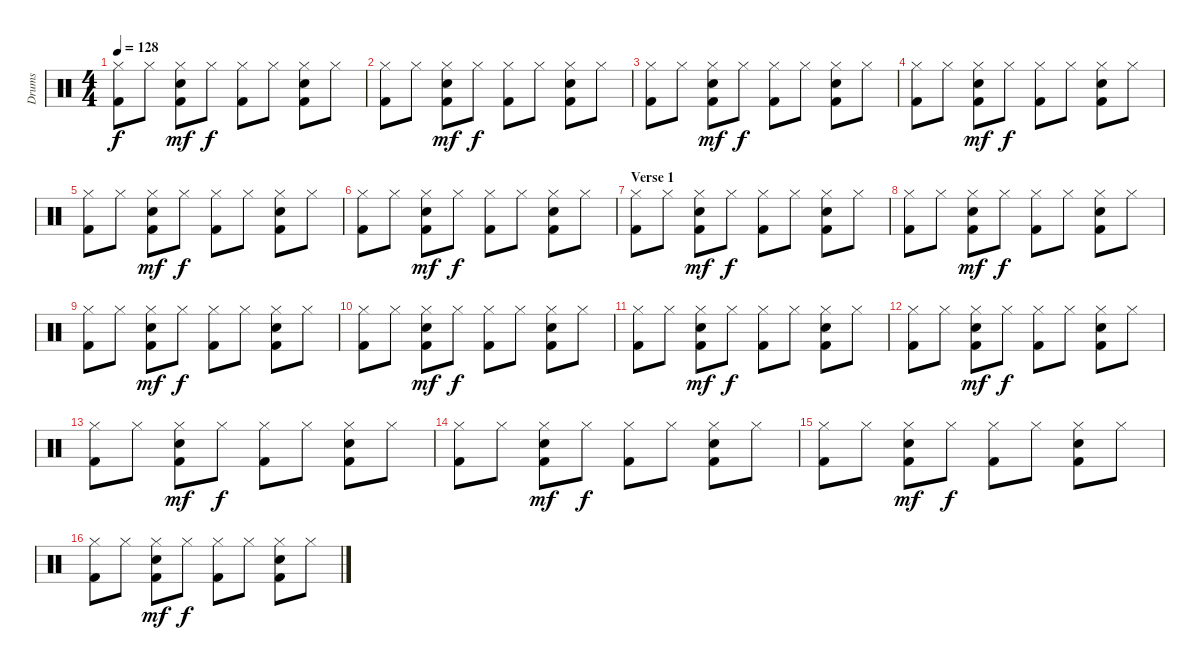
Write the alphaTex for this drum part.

\track ("Drums" "Drums") {instrument percussion}
\staff {score}
\articulation defaults
\ts (4 4)
\tempo 128
\clef neutral
\ks c
("Kick (hit) 2" "Hi-Hat (closed)").8{dy f} "Hi-Hat (closed)".8 ("Kick (hit) 2" "Snare (hit) 2" "Hi-Hat (closed)").8{dy mf} "Hi-Hat (closed)".8{dy f} ("Kick (hit) 2" "Hi-Hat (closed)").8 "Hi-Hat (closed)".8 ("Kick (hit) 2" "Snare (hit) 2" "Hi-Hat (closed)").8 "Hi-Hat (closed)".8 |
("Kick (hit) 2" "Hi-Hat (closed)").8 "Hi-Hat (closed)".8 ("Kick (hit) 2" "Snare (hit) 2" "Hi-Hat (closed)").8{dy mf} "Hi-Hat (closed)".8{dy f} ("Kick (hit) 2" "Hi-Hat (closed)").8 "Hi-Hat (closed)".8 ("Kick (hit) 2" "Snare (hit) 2" "Hi-Hat (closed)").8 "Hi-Hat (closed)".8 |
("Kick (hit) 2" "Hi-Hat (closed)").8 "Hi-Hat (closed)".8 ("Kick (hit) 2" "Snare (hit) 2" "Hi-Hat (closed)").8{dy mf} "Hi-Hat (closed)".8{dy f} ("Kick (hit) 2" "Hi-Hat (closed)").8 "Hi-Hat (closed)".8 ("Kick (hit) 2" "Snare (hit) 2" "Hi-Hat (closed)").8 "Hi-Hat (closed)".8 |
("Kick (hit) 2" "Hi-Hat (closed)").8 "Hi-Hat (closed)".8 ("Kick (hit) 2" "Snare (hit) 2" "Hi-Hat (closed)").8{dy mf} "Hi-Hat (closed)".8{dy f} ("Kick (hit) 2" "Hi-Hat (closed)").8 "Hi-Hat (closed)".8 ("Kick (hit) 2" "Snare (hit) 2" "Hi-Hat (closed)").8 "Hi-Hat (closed)".8 |
("Kick (hit) 2" "Hi-Hat (closed)").8 "Hi-Hat (closed)".8 ("Kick (hit) 2" "Snare (hit) 2" "Hi-Hat (closed)").8{dy mf} "Hi-Hat (closed)".8{dy f} ("Kick (hit) 2" "Hi-Hat (closed)").8 "Hi-Hat (closed)".8 ("Kick (hit) 2" "Snare (hit) 2" "Hi-Hat (closed)").8 "Hi-Hat (closed)".8 |
("Kick (hit) 2" "Hi-Hat (closed)").8 "Hi-Hat (closed)".8 ("Kick (hit) 2" "Snare (hit) 2" "Hi-Hat (closed)").8{dy mf} "Hi-Hat (closed)".8{dy f} ("Kick (hit) 2" "Hi-Hat (closed)").8 "Hi-Hat (closed)".8 ("Kick (hit) 2" "Snare (hit) 2" "Hi-Hat (closed)").8 "Hi-Hat (closed)".8 |
\section ("" "Verse 1")
("Kick (hit) 2" "Hi-Hat (closed)").8 "Hi-Hat (closed)".8 ("Kick (hit) 2" "Snare (hit) 2" "Hi-Hat (closed)").8{dy mf} "Hi-Hat (closed)".8{dy f} ("Kick (hit) 2" "Hi-Hat (closed)").8 "Hi-Hat (closed)".8 ("Kick (hit) 2" "Snare (hit) 2" "Hi-Hat (closed)").8 "Hi-Hat (closed)".8 |
("Kick (hit) 2" "Hi-Hat (closed)").8 "Hi-Hat (closed)".8 ("Kick (hit) 2" "Snare (hit) 2" "Hi-Hat (closed)").8{dy mf} "Hi-Hat (closed)".8{dy f} ("Kick (hit) 2" "Hi-Hat (closed)").8 "Hi-Hat (closed)".8 ("Kick (hit) 2" "Snare (hit) 2" "Hi-Hat (closed)").8 "Hi-Hat (closed)".8 |
("Kick (hit) 2" "Hi-Hat (closed)").8 "Hi-Hat (closed)".8 ("Kick (hit) 2" "Snare (hit) 2" "Hi-Hat (closed)").8{dy mf} "Hi-Hat (closed)".8{dy f} ("Kick (hit) 2" "Hi-Hat (closed)").8 "Hi-Hat (closed)".8 ("Kick (hit) 2" "Snare (hit) 2" "Hi-Hat (closed)").8 "Hi-Hat (closed)".8 |
("Kick (hit) 2" "Hi-Hat (closed)").8 "Hi-Hat (closed)".8 ("Kick (hit) 2" "Snare (hit) 2" "Hi-Hat (closed)").8{dy mf} "Hi-Hat (closed)".8{dy f} ("Kick (hit) 2" "Hi-Hat (closed)").8 "Hi-Hat (closed)".8 ("Kick (hit) 2" "Snare (hit) 2" "Hi-Hat (closed)").8 "Hi-Hat (closed)".8 |
("Kick (hit) 2" "Hi-Hat (closed)").8 "Hi-Hat (closed)".8 ("Kick (hit) 2" "Snare (hit) 2" "Hi-Hat (closed)").8{dy mf} "Hi-Hat (closed)".8{dy f} ("Kick (hit) 2" "Hi-Hat (closed)").8 "Hi-Hat (closed)".8 ("Kick (hit) 2" "Snare (hit) 2" "Hi-Hat (closed)").8 "Hi-Hat (closed)".8 |
("Kick (hit) 2" "Hi-Hat (closed)").8 "Hi-Hat (closed)".8 ("Kick (hit) 2" "Snare (hit) 2" "Hi-Hat (closed)").8{dy mf} "Hi-Hat (closed)".8{dy f} ("Kick (hit) 2" "Hi-Hat (closed)").8 "Hi-Hat (closed)".8 ("Kick (hit) 2" "Snare (hit) 2" "Hi-Hat (closed)").8 "Hi-Hat (closed)".8 |
("Kick (hit) 2" "Hi-Hat (closed)").8 "Hi-Hat (closed)".8 ("Kick (hit) 2" "Snare (hit) 2" "Hi-Hat (closed)").8{dy mf} "Hi-Hat (closed)".8{dy f} ("Kick (hit) 2" "Hi-Hat (closed)").8 "Hi-Hat (closed)".8 ("Kick (hit) 2" "Snare (hit) 2" "Hi-Hat (closed)").8 "Hi-Hat (closed)".8 |
("Kick (hit) 2" "Hi-Hat (closed)").8 "Hi-Hat (closed)".8 ("Kick (hit) 2" "Snare (hit) 2" "Hi-Hat (closed)").8{dy mf} "Hi-Hat (closed)".8{dy f} ("Kick (hit) 2" "Hi-Hat (closed)").8 "Hi-Hat (closed)".8 ("Kick (hit) 2" "Snare (hit) 2" "Hi-Hat (closed)").8 "Hi-Hat (closed)".8 |
("Kick (hit) 2" "Hi-Hat (closed)").8 "Hi-Hat (closed)".8 ("Kick (hit) 2" "Snare (hit) 2" "Hi-Hat (closed)").8{dy mf} "Hi-Hat (closed)".8{dy f} ("Kick (hit) 2" "Hi-Hat (closed)").8 "Hi-Hat (closed)".8 ("Kick (hit) 2" "Snare (hit) 2" "Hi-Hat (closed)").8 "Hi-Hat (closed)".8 |
("Kick (hit) 2" "Hi-Hat (closed)").8 "Hi-Hat (closed)".8 ("Kick (hit) 2" "Snare (hit) 2" "Hi-Hat (closed)").8{dy mf} "Hi-Hat (closed)".8{dy f} ("Kick (hit) 2" "Hi-Hat (closed)").8 "Hi-Hat (closed)".8 ("Kick (hit) 2" "Snare (hit) 2" "Hi-Hat (closed)").8 "Hi-Hat (closed)".8
